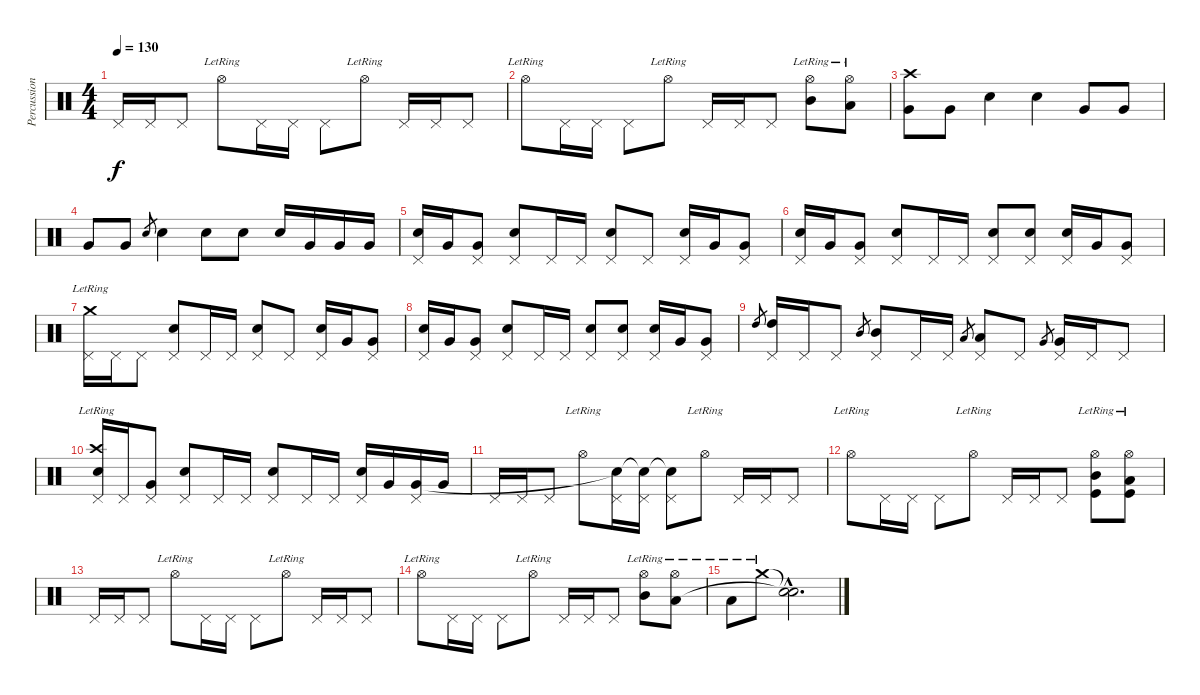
\track ("Percussions" "Percussion") {instrument percussion}
\staff {score}
\articulation defaults
\ts (4 4)
\tempo 130
\clef neutral
\ks c "Pedal Hi-Hat (hit)".16{dy f} "Pedal Hi-Hat (hit)".16 "Pedal Hi-Hat (hit)".8 "Hi-Hat (open)"{lr}.8 "Pedal Hi-Hat (hit)".16 "Pedal Hi-Hat (hit)".16 "Pedal Hi-Hat (hit)".8 "Hi-Hat (open)"{lr}.8 "Pedal Hi-Hat (hit)".16 "Pedal Hi-Hat (hit)".16 "Pedal Hi-Hat (hit)".8
|
"Hi-Hat (open)"{lr}.8 "Pedal Hi-Hat (hit)".16 "Pedal Hi-Hat (hit)".16 "Pedal Hi-Hat (hit)".8 "Hi-Hat (open)"{lr}.8 "Pedal Hi-Hat (hit)".16 "Pedal Hi-Hat (hit)".16 "Pedal Hi-Hat (hit)".8 ("Hi-Hat (open)"{lr} "Mid Tom (hit)"{lr}).8 ("Hi-Hat (open)"{lr} "Low Tom (hit)"{lr}).8 |
("Crash high (hit)" "Very Low Tom (hit)").8 "Very Low Tom (hit)".8 "Electric Snare (hit)".4 "Snare (hit) 2".4 "Very Low Tom (hit)".8 "Very Low Tom (hit)".8 |
"Very Low Tom (hit)".8 "Very Low Tom (hit)".8 "Electric Snare (hit)".8{gr} "Electric Snare (hit)".4 "Electric Snare (hit)".8 "Electric Snare (hit)".8 "Electric Snare (hit)".16 "Very Low Tom (hit)".16 "Very Low Tom (hit)".16 "Very Low Tom (hit)".16 |
("Pedal Hi-Hat (hit)" "Electric Snare (hit)").16 "Very Low Tom (hit)".16 ("Pedal Hi-Hat (hit)" "Very Low Tom (hit)").8 ("Pedal Hi-Hat (hit)" "Electric Snare (hit)").8 "Pedal Hi-Hat (hit)".16 "Pedal Hi-Hat (hit)".16 ("Pedal Hi-Hat (hit)" "Electric Snare (hit)").8 "Pedal Hi-Hat (hit)".8 ("Pedal Hi-Hat (hit)" "Electric Snare (hit)").16 "Very Low Tom (hit)".16 ("Pedal Hi-Hat (hit)" "Very Low Tom (hit)").8 |
("Pedal Hi-Hat (hit)" "Electric Snare (hit)").16 "Very Low Tom (hit)".16 ("Pedal Hi-Hat (hit)" "Very Low Tom (hit)").8 ("Pedal Hi-Hat (hit)" "Electric Snare (hit)").8 "Pedal Hi-Hat (hit)".16 "Pedal Hi-Hat (hit)".16 ("Pedal Hi-Hat (hit)" "Snare (hit) 2").8 ("Pedal Hi-Hat (hit)" "Snare (hit) 2").8 ("Pedal Hi-Hat (hit)" "Snare (hit) 2").16 "Very Low Tom (hit)".16 ("Pedal Hi-Hat (hit)" "Very Low Tom (hit)").8 |
("Pedal Hi-Hat (hit)" "Crash medium (hit)"{lr}).16 "Pedal Hi-Hat (hit)".16 "Pedal Hi-Hat (hit)".8 ("Pedal Hi-Hat (hit)" "Electric Snare (hit)").8 "Pedal Hi-Hat (hit)".16 "Pedal Hi-Hat (hit)".16 ("Pedal Hi-Hat (hit)" "Electric Snare (hit)").8 "Pedal Hi-Hat (hit)".8 ("Pedal Hi-Hat (hit)" "Electric Snare (hit)").16 "Very Low Tom (hit)".16 ("Pedal Hi-Hat (hit)" "Very Low Tom (hit)").8 |
("Pedal Hi-Hat (hit)" "Electric Snare (hit)").16 "Very Low Tom (hit)".16 ("Pedal Hi-Hat (hit)" "Very Low Tom (hit)").8 ("Pedal Hi-Hat (hit)" "Electric Snare (hit)").8 "Pedal Hi-Hat (hit)".16 "Pedal Hi-Hat (hit)".16 ("Pedal Hi-Hat (hit)" "Snare (hit) 2").8 ("Pedal Hi-Hat (hit)" "Snare (hit) 2").8 ("Pedal Hi-Hat (hit)" "Snare (hit) 2").16 "Very Low Tom (hit)".16 ("Pedal Hi-Hat (hit)" "Very Low Tom (hit)").8 |
"High Tom (hit)".8{gr} ("Pedal Hi-Hat (hit)" "High Tom (hit)").16 "Pedal Hi-Hat (hit)".16 "Pedal Hi-Hat (hit)".8 "Mid Tom (hit)".8{gr} ("Pedal Hi-Hat (hit)" "Mid Tom (hit)").8 "Pedal Hi-Hat (hit)".16 "Pedal Hi-Hat (hit)".16 "Low Tom (hit)".8{gr} ("Pedal Hi-Hat (hit)" "Low Tom (hit)").8 "Pedal Hi-Hat (hit)".8 "Very Low Tom (hit)".8{gr} ("Pedal Hi-Hat (hit)" "Very Low Tom (hit)").16 "Pedal Hi-Hat (hit)".16 "Pedal Hi-Hat (hit)".8 |
("Pedal Hi-Hat (hit)" "Crash high (hit)"{lr} "Electric Snare (hit)").16 "Pedal Hi-Hat (hit)".16 ("Pedal Hi-Hat (hit)" "Very Low Tom (hit)").8 ("Pedal Hi-Hat (hit)" "Electric Snare (hit)").8 "Pedal Hi-Hat (hit)".16 "Pedal Hi-Hat (hit)".16 ("Pedal Hi-Hat (hit)" "Electric Snare (hit)").8 "Pedal Hi-Hat (hit)".16 "Pedal Hi-Hat (hit)".16 ("Pedal Hi-Hat (hit)" "Electric Snare (hit)").16 "Very Low Tom (hit)".16 ("Pedal Hi-Hat (hit)" "Very Low Tom (hit)").16 "Very Low Tom (hit)".16 |
"Pedal Hi-Hat (hit)".16 "Pedal Hi-Hat (hit)".16 "Pedal Hi-Hat (hit)".8 "Hi-Hat (open)"{lr}.8 ("Pedal Hi-Hat (hit)" "Snare (hit)"{t}).16 ("Pedal Hi-Hat (hit)" "Snare (hit)"{t}).16 ("Pedal Hi-Hat (hit)" "Snare (hit)"{t}).8 "Hi-Hat (open)"{lr}.8 "Pedal Hi-Hat (hit)".16 "Pedal Hi-Hat (hit)".16 "Pedal Hi-Hat (hit)".8 |
"Hi-Hat (open)"{lr}.8 "Pedal Hi-Hat (hit)".16 "Pedal Hi-Hat (hit)".16 "Pedal Hi-Hat (hit)".8 "Hi-Hat (open)"{lr}.8 "Pedal Hi-Hat (hit)".16 "Pedal Hi-Hat (hit)".16 "Pedal Hi-Hat (hit)".8 ("Hi-Hat (open)"{lr} "Mid Tom (hit)"{lr} "Kick (hit)").8 ("Hi-Hat (open)"{lr} "Low Floor Tom (hit)"{lr} "Kick (hit)").8 |
"Pedal Hi-Hat (hit)".16 "Pedal Hi-Hat (hit)".16 "Pedal Hi-Hat (hit)".8 "Hi-Hat (open)"{lr}.8 "Pedal Hi-Hat (hit)".16 "Pedal Hi-Hat (hit)".16 "Pedal Hi-Hat (hit)".8 "Hi-Hat (open)"{lr}.8 "Pedal Hi-Hat (hit)".16 "Pedal Hi-Hat (hit)".16 "Pedal Hi-Hat (hit)".8 |
"Hi-Hat (open)"{lr}.8 "Pedal Hi-Hat (hit)".16 "Pedal Hi-Hat (hit)".16 "Pedal Hi-Hat (hit)".8 "Hi-Hat (open)"{lr}.8 "Pedal Hi-Hat (hit)".16 "Pedal Hi-Hat (hit)".16 "Pedal Hi-Hat (hit)".8 ("Hi-Hat (open)"{lr} "Mid Tom (hit)"{lr}).8 ("Hi-Hat (open)"{lr} "Low Tom (hit)"{lr}).8 |
"Low Floor Tom (hit)"{lr}.8 "Crash medium (hit)"{lr}.8 ("Snare (hit)"{hac t} "Snare (hit)"{hac t}).2{d}
